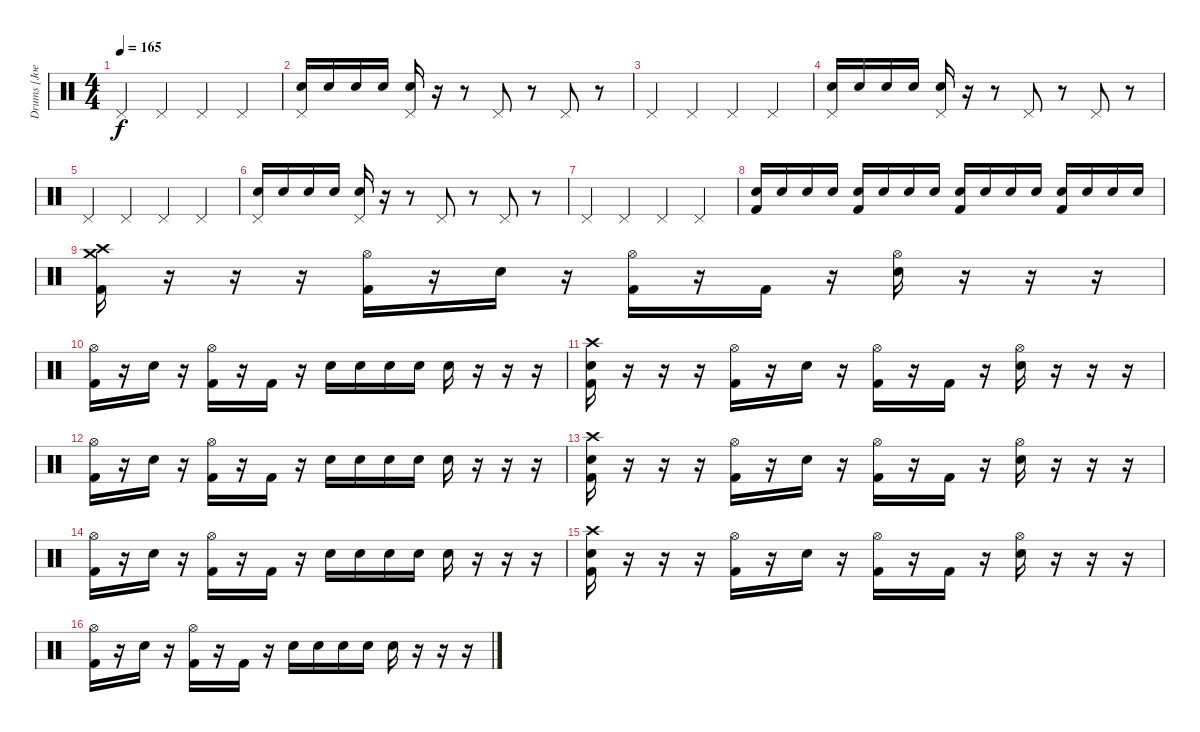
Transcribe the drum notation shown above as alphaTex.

\track ("Drums [Joel Paolucci]" "Drums [Joe") {instrument percussion}
\staff {score}
\articulation defaults
\ts (4 4)
\tempo 165
\clef neutral
\ks c "Pedal Hi-Hat (hit)".4{dy f} "Pedal Hi-Hat (hit)".4 "Pedal Hi-Hat (hit)".4 "Pedal Hi-Hat (hit)".4
|
("Electric Snare (hit)" "Pedal Hi-Hat (hit)").16 "Electric Snare (hit)".16 "Electric Snare (hit)".16 "Electric Snare (hit)".16 ("Electric Snare (hit)" "Pedal Hi-Hat (hit)").16 r.16 r.8 "Pedal Hi-Hat (hit)".8 r.8 "Pedal Hi-Hat (hit)".8 r.8 |
"Pedal Hi-Hat (hit)".4 "Pedal Hi-Hat (hit)".4 "Pedal Hi-Hat (hit)".4 "Pedal Hi-Hat (hit)".4 |
("Electric Snare (hit)" "Pedal Hi-Hat (hit)").16 "Electric Snare (hit)".16 "Electric Snare (hit)".16 "Electric Snare (hit)".16 ("Electric Snare (hit)" "Pedal Hi-Hat (hit)").16 r.16 r.8 "Pedal Hi-Hat (hit)".8 r.8 "Pedal Hi-Hat (hit)".8 r.8 |
"Pedal Hi-Hat (hit)".4 "Pedal Hi-Hat (hit)".4 "Pedal Hi-Hat (hit)".4 "Pedal Hi-Hat (hit)".4 |
("Electric Snare (hit)" "Pedal Hi-Hat (hit)").16 "Electric Snare (hit)".16 "Electric Snare (hit)".16 "Electric Snare (hit)".16 ("Electric Snare (hit)" "Pedal Hi-Hat (hit)").16 r.16 r.8 "Pedal Hi-Hat (hit)".8 r.8 "Pedal Hi-Hat (hit)".8 r.8 |
"Pedal Hi-Hat (hit)".4 "Pedal Hi-Hat (hit)".4 "Pedal Hi-Hat (hit)".4 "Pedal Hi-Hat (hit)".4 |
("Electric Snare (hit)" "Kick (hit) 2").16 "Electric Snare (hit)".16 "Electric Snare (hit)".16 "Electric Snare (hit)".16 ("Electric Snare (hit)" "Kick (hit) 2").16 "Electric Snare (hit)".16 "Electric Snare (hit)".16 "Electric Snare (hit)".16 ("Electric Snare (hit)" "Kick (hit) 2").16 "Electric Snare (hit)".16 "Electric Snare (hit)".16 "Electric Snare (hit)".16 ("Electric Snare (hit)" "Kick (hit) 2").16 "Electric Snare (hit)".16 "Electric Snare (hit)".16 "Electric Snare (hit)".16 |
("Crash medium (hit)" "Crash high (hit)" "Kick (hit) 2").16 r.16 r.16 r.16 ("Hi-Hat (open)" "Kick (hit) 2").16 r.16 "Electric Snare (hit)".16 r.16 ("Hi-Hat (open)" "Kick (hit) 2").16 r.16 "Kick (hit) 2".16 r.16 ("Hi-Hat (open)" "Electric Snare (hit)").16 r.16 r.16 r.16 |
("Hi-Hat (open)" "Kick (hit) 2").16 r.16 "Electric Snare (hit)".16 r.16 ("Hi-Hat (open)" "Kick (hit) 2").16 r.16 "Kick (hit) 2".16 r.16 "Electric Snare (hit)".16 "Electric Snare (hit)".16 "Electric Snare (hit)".16 "Electric Snare (hit)".16 "Electric Snare (hit)".16 r.16 r.16 r.16 |
("Crash high (hit)" "Electric Snare (hit)" "Kick (hit) 2").16 r.16 r.16 r.16 ("Hi-Hat (open)" "Kick (hit) 2").16 r.16 "Electric Snare (hit)".16 r.16 ("Hi-Hat (open)" "Kick (hit) 2").16 r.16 "Kick (hit) 2".16 r.16 ("Hi-Hat (open)" "Electric Snare (hit)").16 r.16 r.16 r.16 |
("Hi-Hat (open)" "Kick (hit) 2").16 r.16 "Electric Snare (hit)".16 r.16 ("Hi-Hat (open)" "Kick (hit) 2").16 r.16 "Kick (hit) 2".16 r.16 "Electric Snare (hit)".16 "Electric Snare (hit)".16 "Electric Snare (hit)".16 "Electric Snare (hit)".16 "Electric Snare (hit)".16 r.16 r.16 r.16 |
("Crash high (hit)" "Electric Snare (hit)" "Kick (hit) 2").16 r.16 r.16 r.16 ("Hi-Hat (open)" "Kick (hit) 2").16 r.16 "Electric Snare (hit)".16 r.16 ("Hi-Hat (open)" "Kick (hit) 2").16 r.16 "Kick (hit) 2".16 r.16 ("Hi-Hat (open)" "Electric Snare (hit)").16 r.16 r.16 r.16 |
("Hi-Hat (open)" "Kick (hit) 2").16 r.16 "Electric Snare (hit)".16 r.16 ("Hi-Hat (open)" "Kick (hit) 2").16 r.16 "Kick (hit) 2".16 r.16 "Electric Snare (hit)".16 "Electric Snare (hit)".16 "Electric Snare (hit)".16 "Electric Snare (hit)".16 "Electric Snare (hit)".16 r.16 r.16 r.16 |
("Crash high (hit)" "Electric Snare (hit)" "Kick (hit) 2").16 r.16 r.16 r.16 ("Hi-Hat (open)" "Kick (hit) 2").16 r.16 "Electric Snare (hit)".16 r.16 ("Hi-Hat (open)" "Kick (hit) 2").16 r.16 "Kick (hit) 2".16 r.16 ("Hi-Hat (open)" "Electric Snare (hit)").16 r.16 r.16 r.16 |
("Hi-Hat (open)" "Kick (hit) 2").16 r.16 "Electric Snare (hit)".16 r.16 ("Hi-Hat (open)" "Kick (hit) 2").16 r.16 "Kick (hit) 2".16 r.16 "Electric Snare (hit)".16 "Electric Snare (hit)".16 "Electric Snare (hit)".16 "Electric Snare (hit)".16 "Electric Snare (hit)".16 r.16 r.16 r.16
